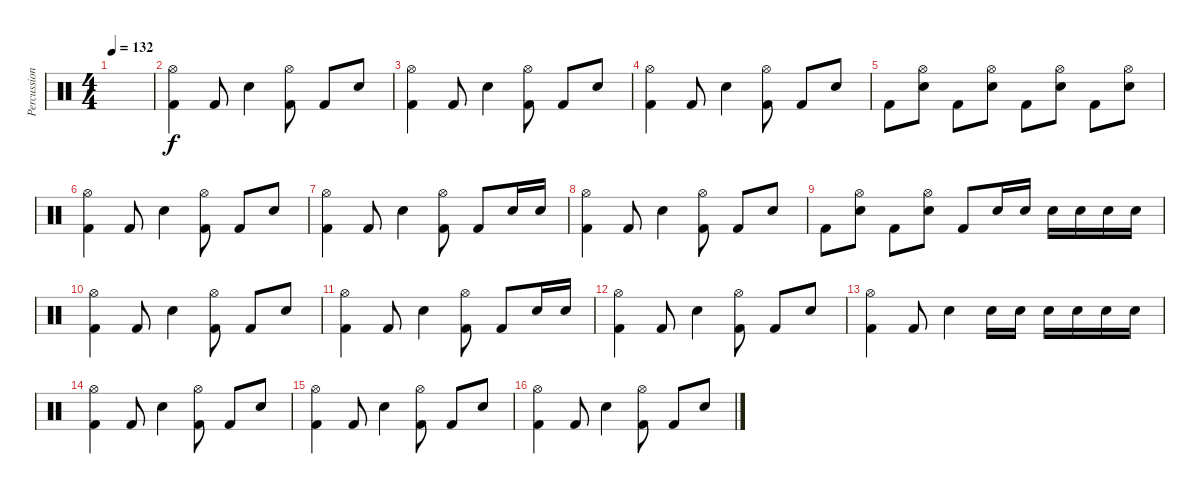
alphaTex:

\track ("Percussion" "Percussion") {instrument percussion}
\staff {score}
\articulation defaults
\ts (4 4)
\tempo 132
\clef neutral
\ks c
|
("Kick (hit) 2" "Hi-Hat (open)").4 "Kick (hit) 2".8 "Snare (hit) 2".4 ("Kick (hit) 2" "Hi-Hat (open)").8 "Kick (hit) 2".8 "Snare (hit) 2".8 |
("Kick (hit) 2" "Hi-Hat (open)").4 "Kick (hit) 2".8 "Snare (hit) 2".4 ("Kick (hit) 2" "Hi-Hat (open)").8 "Kick (hit) 2".8 "Snare (hit) 2".8 |
("Kick (hit) 2" "Hi-Hat (open)").4 "Kick (hit) 2".8 "Snare (hit) 2".4 ("Kick (hit) 2" "Hi-Hat (open)").8 "Kick (hit) 2".8 "Snare (hit) 2".8 |
"Kick (hit) 2".8 ("Snare (hit) 2" "Hi-Hat (open)").8 "Kick (hit) 2".8 ("Snare (hit) 2" "Hi-Hat (open)").8 "Kick (hit) 2".8 ("Snare (hit) 2" "Hi-Hat (open)").8 "Kick (hit) 2".8 ("Snare (hit) 2" "Hi-Hat (open)").8 |
("Kick (hit) 2" "Hi-Hat (open)").4 "Kick (hit) 2".8 "Snare (hit) 2".4 ("Kick (hit) 2" "Hi-Hat (open)").8 "Kick (hit) 2".8 "Snare (hit) 2".8 |
("Kick (hit) 2" "Hi-Hat (open)").4 "Kick (hit) 2".8 "Snare (hit) 2".4 ("Kick (hit) 2" "Hi-Hat (open)").8 "Kick (hit) 2".8 "Electric Snare (hit)".16 "Electric Snare (hit)".16 |
("Kick (hit) 2" "Hi-Hat (open)").4 "Kick (hit) 2".8 "Snare (hit) 2".4 ("Kick (hit) 2" "Hi-Hat (open)").8 "Kick (hit) 2".8 "Snare (hit) 2".8 |
"Kick (hit) 2".8 ("Snare (hit) 2" "Hi-Hat (open)").8 "Kick (hit) 2".8 ("Snare (hit) 2" "Hi-Hat (open)").8 "Kick (hit) 2".8 "Electric Snare (hit)".16 "Electric Snare (hit)".16 "Electric Snare (hit)".16 "Electric Snare (hit)".16 "Electric Snare (hit)".16 "Electric Snare (hit)".16 |
("Kick (hit) 2" "Hi-Hat (open)").4 "Kick (hit) 2".8 "Snare (hit) 2".4 ("Kick (hit) 2" "Hi-Hat (open)").8 "Kick (hit) 2".8 "Snare (hit) 2".8 |
("Kick (hit) 2" "Hi-Hat (open)").4 "Kick (hit) 2".8 "Snare (hit) 2".4 ("Kick (hit) 2" "Hi-Hat (open)").8 "Kick (hit) 2".8 "Electric Snare (hit)".16 "Electric Snare (hit)".16 |
("Kick (hit) 2" "Hi-Hat (open)").4 "Kick (hit) 2".8 "Snare (hit) 2".4 ("Kick (hit) 2" "Hi-Hat (open)").8 "Kick (hit) 2".8 "Snare (hit) 2".8 |
("Kick (hit) 2" "Hi-Hat (open)").4 "Kick (hit) 2".8 "Snare (hit) 2".4 "Electric Snare (hit)".16 "Electric Snare (hit)".16 "Electric Snare (hit)".16 "Electric Snare (hit)".16 "Electric Snare (hit)".16 "Electric Snare (hit)".16 |
("Kick (hit) 2" "Hi-Hat (open)").4 "Kick (hit) 2".8 "Snare (hit) 2".4 ("Kick (hit) 2" "Hi-Hat (open)").8 "Kick (hit) 2".8 "Snare (hit) 2".8 |
("Kick (hit) 2" "Hi-Hat (open)").4 "Kick (hit) 2".8 "Snare (hit) 2".4 ("Kick (hit) 2" "Hi-Hat (open)").8 "Kick (hit) 2".8 "Snare (hit) 2".8 |
("Kick (hit) 2" "Hi-Hat (open)").4 "Kick (hit) 2".8 "Snare (hit) 2".4 ("Kick (hit) 2" "Hi-Hat (open)").8 "Kick (hit) 2".8 "Snare (hit) 2".8
